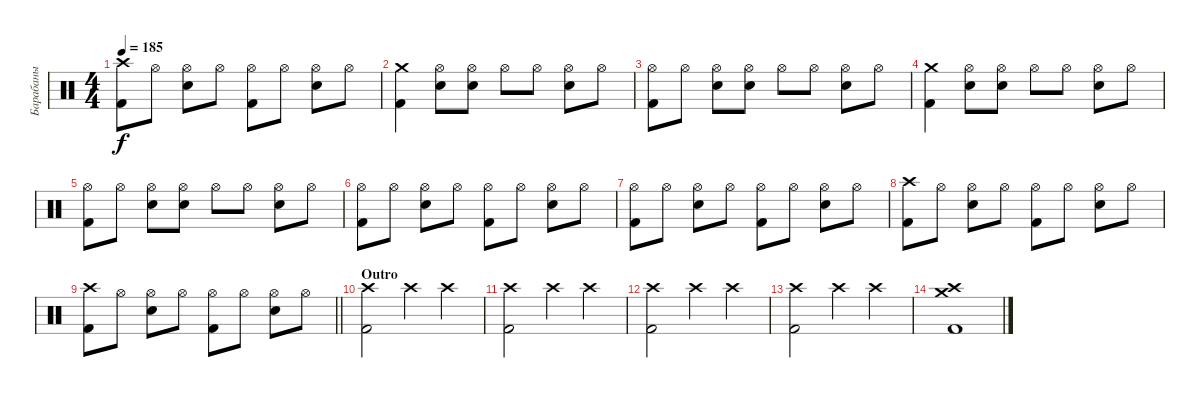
\track ("Барабаны" "Барабаны") {instrument percussion}
\staff {score}
\articulation defaults
\ts (4 4)
\tempo 185
\clef neutral
\ks c
("Crash high (hit)" "Kick (hit) 2").8{dy f} "Hi-Hat (open)".8 ("Hi-Hat (open)" "Snare (hit) 2").8 "Hi-Hat (open)".8 ("Hi-Hat (open)" "Kick (hit) 2").8 "Hi-Hat (open)".8 ("Hi-Hat (open)" "Snare (hit) 2").8 "Hi-Hat (open)".8 |
("Crash medium (hit)" "Kick (hit) 2").4 ("Hi-Hat (open)" "Snare (hit) 2").8 ("Hi-Hat (open)" "Snare (hit) 2").8 "Hi-Hat (open)".8 "Hi-Hat (open)".8 ("Hi-Hat (open)" "Snare (hit) 2").8 "Hi-Hat (open)".8 |
("Hi-Hat (open)" "Kick (hit) 2").8 "Hi-Hat (open)".8 ("Hi-Hat (open)" "Snare (hit) 2").8 ("Hi-Hat (open)" "Snare (hit) 2").8 "Hi-Hat (open)".8 "Hi-Hat (open)".8 ("Hi-Hat (open)" "Snare (hit) 2").8 "Hi-Hat (open)".8 |
("Crash medium (hit)" "Kick (hit) 2").4 ("Hi-Hat (open)" "Snare (hit) 2").8 ("Hi-Hat (open)" "Snare (hit) 2").8 "Hi-Hat (open)".8 "Hi-Hat (open)".8 ("Hi-Hat (open)" "Snare (hit) 2").8 "Hi-Hat (open)".8 |
("Hi-Hat (open)" "Kick (hit) 2").8 "Hi-Hat (open)".8 ("Hi-Hat (open)" "Snare (hit) 2").8 ("Hi-Hat (open)" "Snare (hit) 2").8 "Hi-Hat (open)".8 "Hi-Hat (open)".8 ("Hi-Hat (open)" "Snare (hit) 2").8 "Hi-Hat (open)".8 |
("Hi-Hat (open)" "Kick (hit) 2").8 "Hi-Hat (open)".8 ("Hi-Hat (open)" "Snare (hit) 2").8 "Hi-Hat (open)".8 ("Hi-Hat (open)" "Kick (hit) 2").8 "Hi-Hat (open)".8 ("Hi-Hat (open)" "Snare (hit) 2").8 "Hi-Hat (open)".8 |
("Hi-Hat (open)" "Kick (hit) 2").8 "Hi-Hat (open)".8 ("Hi-Hat (open)" "Snare (hit) 2").8 "Hi-Hat (open)".8 ("Hi-Hat (open)" "Kick (hit) 2").8 "Hi-Hat (open)".8 ("Hi-Hat (open)" "Snare (hit) 2").8 "Hi-Hat (open)".8 |
("Crash high (hit)" "Kick (hit) 2").8 "Hi-Hat (open)".8 ("Hi-Hat (open)" "Snare (hit) 2").8 "Hi-Hat (open)".8 ("Hi-Hat (open)" "Kick (hit) 2").8 "Hi-Hat (open)".8 ("Hi-Hat (open)" "Snare (hit) 2").8 "Hi-Hat (open)".8 |
\barLineRight lightlight
("Crash high (hit)" "Kick (hit) 2").8 "Hi-Hat (open)".8 ("Hi-Hat (open)" "Snare (hit) 2").8 "Hi-Hat (open)".8 ("Hi-Hat (open)" "Kick (hit) 2").8 "Hi-Hat (open)".8 ("Hi-Hat (open)" "Snare (hit) 2").8 "Hi-Hat (open)".8 |
\section ("" "Outro")
("Crash high (hit)" "Kick (hit) 2").2 "Crash high (hit)".4 "Crash high (hit)".4 |
("Crash high (hit)" "Kick (hit) 2").2 "Crash high (hit)".4 "Crash high (hit)".4 |
("Crash high (hit)" "Kick (hit) 2").2 "Crash high (hit)".4 "Crash high (hit)".4 |
("Crash high (hit)" "Kick (hit) 2").2 "Crash high (hit)".4 "Crash high (hit)".4 |
("Crash high (hit)" "Crash medium (hit)" "Kick (hit) 2").1
